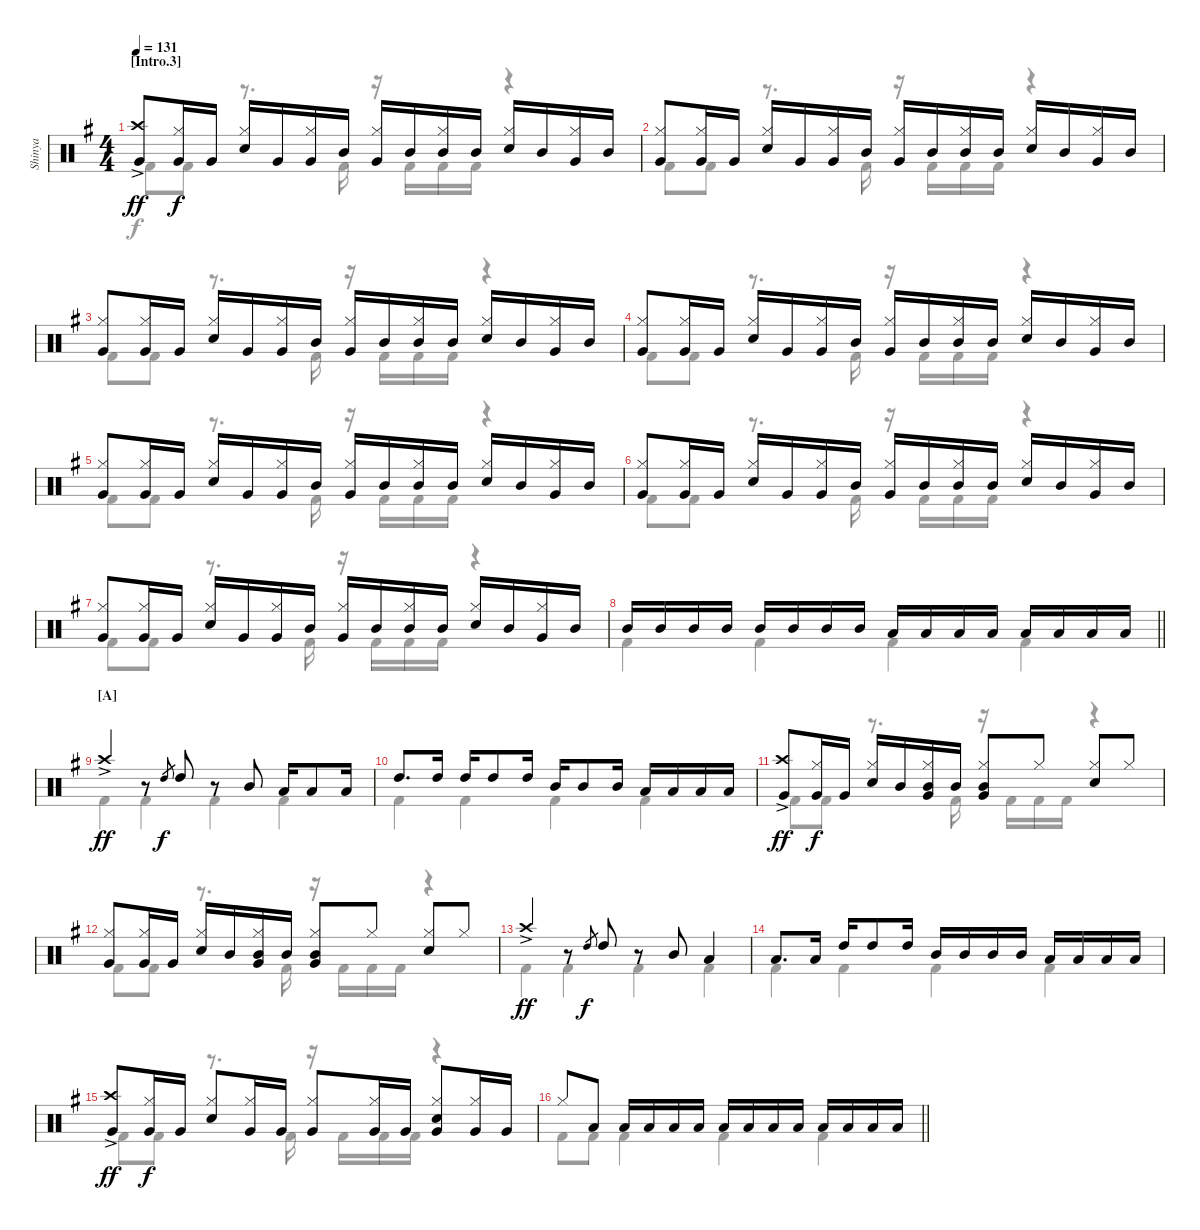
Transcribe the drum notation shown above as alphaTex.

\track ("Shinya" "Shinya") {instrument percussion}
\staff {score}
\articulation defaults
\voice
\ts (4 4)
\section ("" "[Intro.3]")
\tempo 131
\clef neutral
\ks eminor
("Crash high (hit)"{ac} "Very Low Tom (hit)").8{dy ff} ("Hi-Hat (closed)" "Very Low Tom (hit)").16{dy f} "Very Low Tom (hit)".16 ("Hi-Hat (closed)" "Snare (hit) 2").16 "Very Low Tom (hit)".16 ("Hi-Hat (closed)" "Very Low Tom (hit)").16 "Mid Tom (hit)".16 ("Hi-Hat (closed)" "Very Low Tom (hit)").16 "Mid Tom (hit)".16 ("Hi-Hat (closed)" "Mid Tom (hit)").16 "Mid Tom (hit)".16 ("Hi-Hat (closed)" "Snare (hit) 2").16 "Mid Tom (hit)".16 ("Hi-Hat (closed)" "Very Low Tom (hit)").16 "Mid Tom (hit)".16 |
("Hi-Hat (closed)" "Very Low Tom (hit)").8 ("Hi-Hat (closed)" "Very Low Tom (hit)").16 "Very Low Tom (hit)".16 ("Hi-Hat (closed)" "Snare (hit) 2").16 "Very Low Tom (hit)".16 ("Hi-Hat (closed)" "Very Low Tom (hit)").16 "Mid Tom (hit)".16 ("Hi-Hat (closed)" "Very Low Tom (hit)").16 "Mid Tom (hit)".16 ("Hi-Hat (closed)" "Mid Tom (hit)").16 "Mid Tom (hit)".16 ("Hi-Hat (closed)" "Snare (hit) 2").16 "Mid Tom (hit)".16 ("Hi-Hat (closed)" "Very Low Tom (hit)").16 "Mid Tom (hit)".16 |
("Hi-Hat (closed)" "Very Low Tom (hit)").8 ("Hi-Hat (closed)" "Very Low Tom (hit)").16 "Very Low Tom (hit)".16 ("Hi-Hat (closed)" "Snare (hit) 2").16 "Very Low Tom (hit)".16 ("Hi-Hat (closed)" "Very Low Tom (hit)").16 "Mid Tom (hit)".16 ("Hi-Hat (closed)" "Very Low Tom (hit)").16 "Mid Tom (hit)".16 ("Hi-Hat (closed)" "Mid Tom (hit)").16 "Mid Tom (hit)".16 ("Hi-Hat (closed)" "Snare (hit) 2").16 "Mid Tom (hit)".16 ("Hi-Hat (closed)" "Very Low Tom (hit)").16 "Mid Tom (hit)".16 |
("Hi-Hat (closed)" "Very Low Tom (hit)").8 ("Hi-Hat (closed)" "Very Low Tom (hit)").16 "Very Low Tom (hit)".16 ("Hi-Hat (closed)" "Snare (hit) 2").16 "Very Low Tom (hit)".16 ("Hi-Hat (closed)" "Very Low Tom (hit)").16 "Mid Tom (hit)".16 ("Hi-Hat (closed)" "Very Low Tom (hit)").16 "Mid Tom (hit)".16 ("Hi-Hat (closed)" "Mid Tom (hit)").16 "Mid Tom (hit)".16 ("Hi-Hat (closed)" "Snare (hit) 2").16 "Mid Tom (hit)".16 ("Hi-Hat (closed)" "Very Low Tom (hit)").16 "Mid Tom (hit)".16 |
("Hi-Hat (closed)" "Very Low Tom (hit)").8 ("Hi-Hat (closed)" "Very Low Tom (hit)").16 "Very Low Tom (hit)".16 ("Hi-Hat (closed)" "Snare (hit) 2").16 "Very Low Tom (hit)".16 ("Hi-Hat (closed)" "Very Low Tom (hit)").16 "Mid Tom (hit)".16 ("Hi-Hat (closed)" "Very Low Tom (hit)").16 "Mid Tom (hit)".16 ("Hi-Hat (closed)" "Mid Tom (hit)").16 "Mid Tom (hit)".16 ("Hi-Hat (closed)" "Snare (hit) 2").16 "Mid Tom (hit)".16 ("Hi-Hat (closed)" "Very Low Tom (hit)").16 "Mid Tom (hit)".16 |
("Hi-Hat (closed)" "Very Low Tom (hit)").8 ("Hi-Hat (closed)" "Very Low Tom (hit)").16 "Very Low Tom (hit)".16 ("Hi-Hat (closed)" "Snare (hit) 2").16 "Very Low Tom (hit)".16 ("Hi-Hat (closed)" "Very Low Tom (hit)").16 "Mid Tom (hit)".16 ("Hi-Hat (closed)" "Very Low Tom (hit)").16 "Mid Tom (hit)".16 ("Hi-Hat (closed)" "Mid Tom (hit)").16 "Mid Tom (hit)".16 ("Hi-Hat (closed)" "Snare (hit) 2").16 "Mid Tom (hit)".16 ("Hi-Hat (closed)" "Very Low Tom (hit)").16 "Mid Tom (hit)".16 |
("Hi-Hat (closed)" "Very Low Tom (hit)").8 ("Hi-Hat (closed)" "Very Low Tom (hit)").16 "Very Low Tom (hit)".16 ("Hi-Hat (closed)" "Snare (hit) 2").16 "Very Low Tom (hit)".16 ("Hi-Hat (closed)" "Very Low Tom (hit)").16 "Mid Tom (hit)".16 ("Hi-Hat (closed)" "Very Low Tom (hit)").16 "Mid Tom (hit)".16 ("Hi-Hat (closed)" "Mid Tom (hit)").16 "Mid Tom (hit)".16 ("Hi-Hat (closed)" "Snare (hit) 2").16 "Mid Tom (hit)".16 ("Hi-Hat (closed)" "Very Low Tom (hit)").16 "Mid Tom (hit)".16 |
\barLineRight lightlight "Mid Tom (hit)".16 "Mid Tom (hit)".16 "Mid Tom (hit)".16 "Mid Tom (hit)".16 "Mid Tom (hit)".16 "Mid Tom (hit)".16 "Mid Tom (hit)".16 "Mid Tom (hit)".16 "Low Tom (hit)".16 "Low Tom (hit)".16 "Low Tom (hit)".16 "Low Tom (hit)".16 "Low Tom (hit)".16 "Low Tom (hit)".16 "Low Tom (hit)".16 "Low Tom (hit)".16
|
\section ("" "[A]")
"Crash high (hit)"{ac}.4{dy ff} r.8 "High Tom (hit)".8{gr dy f} "High Tom (hit)".8 r.8 "Mid Tom (hit)".8 "Low Tom (hit)".16 "Low Tom (hit)".8 "Low Tom (hit)".16 |
"High Tom (hit)".8{d} "High Tom (hit)".16 "High Tom (hit)".16 "High Tom (hit)".8 "High Tom (hit)".16 "Mid Tom (hit)".16 "Mid Tom (hit)".8 "Mid Tom (hit)".16 "Low Tom (hit)".16 "Low Tom (hit)".16 "Low Tom (hit)".16 "Low Tom (hit)".16 |
("Crash high (hit)"{ac} "Very Low Tom (hit)").8{dy ff} ("Hi-Hat (closed)" "Very Low Tom (hit)").16{dy f} "Very Low Tom (hit)".16 ("Hi-Hat (closed)" "Snare (hit) 2").16 "Mid Tom (hit)".16 ("Hi-Hat (closed)" "Mid Tom (hit)" "Very Low Tom (hit)").16 "Mid Tom (hit)".16 ("Hi-Hat (closed)" "Mid Tom (hit)" "Very Low Tom (hit)").8 "Hi-Hat (closed)".8 ("Hi-Hat (closed)" "Snare (hit) 2").8 "Hi-Hat (closed)".8 |
("Hi-Hat (closed)" "Very Low Tom (hit)").8 ("Hi-Hat (closed)" "Very Low Tom (hit)").16 "Very Low Tom (hit)".16 ("Hi-Hat (closed)" "Snare (hit) 2").16 "Mid Tom (hit)".16 ("Hi-Hat (closed)" "Mid Tom (hit)" "Very Low Tom (hit)").16 "Mid Tom (hit)".16 ("Hi-Hat (closed)" "Mid Tom (hit)" "Very Low Tom (hit)").8 "Hi-Hat (closed)".8 ("Hi-Hat (closed)" "Snare (hit) 2").8 "Hi-Hat (closed)".8 |
"Crash high (hit)"{ac}.4{dy ff} r.8 "High Tom (hit)".8{gr dy f} "High Tom (hit)".8 r.8 "Mid Tom (hit)".8 "Low Tom (hit)".4 |
"Low Tom (hit)".8{d} "Low Tom (hit)".16 "High Tom (hit)".16 "High Tom (hit)".8 "High Tom (hit)".16 "Mid Tom (hit)".16 "Mid Tom (hit)".16 "Mid Tom (hit)".16 "Mid Tom (hit)".16 "Low Tom (hit)".16 "Low Tom (hit)".16 "Low Tom (hit)".16 "Low Tom (hit)".16 |
("Crash high (hit)"{ac} "Very Low Tom (hit)").8{dy ff} ("Hi-Hat (closed)" "Very Low Tom (hit)").16{dy f} "Very Low Tom (hit)".16 ("Hi-Hat (closed)" "Snare (hit) 2").8 ("Hi-Hat (closed)" "Very Low Tom (hit)").16 "Very Low Tom (hit)".16 ("Hi-Hat (closed)" "Very Low Tom (hit)").8 ("Hi-Hat (closed)" "Very Low Tom (hit)").16 "Very Low Tom (hit)".16 ("Hi-Hat (closed)" "Snare (hit) 2" "Very Low Tom (hit)").8 ("Hi-Hat (closed)" "Very Low Tom (hit)").16 "Very Low Tom (hit)".16 |
\barLineRight lightlight "Hi-Hat (closed)".8 "Low Tom (hit)".8 "Low Tom (hit)".16 "Low Tom (hit)".16 "Low Tom (hit)".16 "Low Tom (hit)".16 "Low Tom (hit)".16 "Low Tom (hit)".16 "Low Tom (hit)".16 "Low Tom (hit)".16 "Low Tom (hit)".16 "Low Tom (hit)".16 "Low Tom (hit)".16 "Low Tom (hit)".16
\voice
\clef neutral
\ottava regular
\simile none
\ks eminor "Kick (hit) 2".8{dy f} "Kick (hit) 2".8
r.8{d} "Kick (hit) 2".16 r.16 "Kick (hit) 2".16 "Kick (hit) 2".16 "Kick (hit) 2".16 r.4 |
"Kick (hit) 2".8 "Kick (hit) 2".8 r.8{d} "Kick (hit) 2".16 r.16 "Kick (hit) 2".16 "Kick (hit) 2".16 "Kick (hit) 2".16 r.4 |
"Kick (hit) 2".8 "Kick (hit) 2".8 r.8{d} "Kick (hit) 2".16 r.16 "Kick (hit) 2".16 "Kick (hit) 2".16 "Kick (hit) 2".16 r.4 |
"Kick (hit) 2".8 "Kick (hit) 2".8 r.8{d} "Kick (hit) 2".16 r.16 "Kick (hit) 2".16 "Kick (hit) 2".16 "Kick (hit) 2".16 r.4 |
"Kick (hit) 2".8 "Kick (hit) 2".8 r.8{d} "Kick (hit) 2".16 r.16 "Kick (hit) 2".16 "Kick (hit) 2".16 "Kick (hit) 2".16 r.4 |
"Kick (hit) 2".8 "Kick (hit) 2".8 r.8{d} "Kick (hit) 2".16 r.16 "Kick (hit) 2".16 "Kick (hit) 2".16 "Kick (hit) 2".16 r.4 |
"Kick (hit) 2".8 "Kick (hit) 2".8 r.8{d} "Kick (hit) 2".16 r.16 "Kick (hit) 2".16 "Kick (hit) 2".16 "Kick (hit) 2".16 r.4 |
\barLineRight lightlight "Kick (hit) 2".4 "Kick (hit) 2".4 "Kick (hit) 2".4 "Kick (hit) 2".4
|
"Kick (hit) 2".4 "Kick (hit) 2".4 "Kick (hit) 2".4 "Kick (hit) 2".4 |
"Kick (hit) 2".4 "Kick (hit) 2".4 "Kick (hit) 2".4 "Kick (hit) 2".4 |
"Kick (hit) 2".8 "Kick (hit) 2".8 r.8{d} "Kick (hit) 2".16 r.16 "Kick (hit) 2".16 "Kick (hit) 2".16 "Kick (hit) 2".16 r.4 |
"Kick (hit) 2".8 "Kick (hit) 2".8 r.8{d} "Kick (hit) 2".16 r.16 "Kick (hit) 2".16 "Kick (hit) 2".16 "Kick (hit) 2".16 r.4 |
"Kick (hit) 2".4 "Kick (hit) 2".4 "Kick (hit) 2".4 "Kick (hit) 2".4 |
"Kick (hit) 2".4 "Kick (hit) 2".4 "Kick (hit) 2".4 "Kick (hit) 2".4 |
"Kick (hit) 2".8 "Kick (hit) 2".8 r.8{d} "Kick (hit) 2".16 r.16 "Kick (hit) 2".16 "Kick (hit) 2".16 "Kick (hit) 2".16 r.4 |
\barLineRight lightlight "Kick (hit) 2".8 "Kick (hit) 2".8 "Kick (hit) 2".4 "Kick (hit) 2".4 "Kick (hit) 2".4
